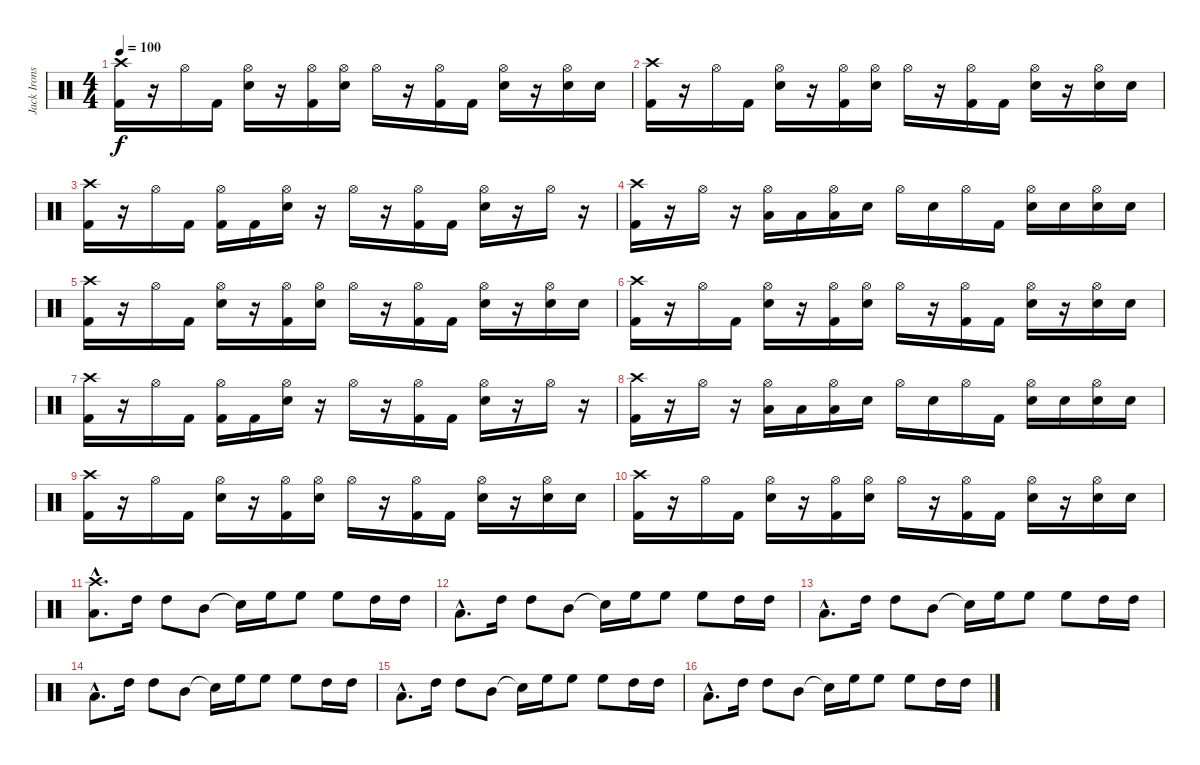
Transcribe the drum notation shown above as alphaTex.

\track ("Jack Irons" "Jack Irons") {instrument percussion}
\staff {score}
\articulation defaults
\ts (4 4)
\tempo 100
\clef neutral
\ks c
("Crash high (hit)" "Kick (hit) 2").16{dy f} r.16 "Hi-Hat (open)".16 "Kick (hit) 2".16 ("Hi-Hat (open)" "Snare (hit) 2").16 r.16 ("Hi-Hat (open)" "Kick (hit) 2").16 ("Hi-Hat (open)" "Snare (hit) 2").16 "Hi-Hat (open)".16 r.16 ("Hi-Hat (open)" "Kick (hit) 2").16 "Kick (hit) 2".16 ("Hi-Hat (open)" "Snare (hit) 2").16 r.16 ("Hi-Hat (open)" "Snare (hit) 2").16 "Snare (hit) 2".16 |
("Crash high (hit)" "Kick (hit) 2").16 r.16 "Hi-Hat (open)".16 "Kick (hit) 2".16 ("Hi-Hat (open)" "Snare (hit) 2").16 r.16 ("Hi-Hat (open)" "Kick (hit) 2").16 ("Hi-Hat (open)" "Snare (hit) 2").16 "Hi-Hat (open)".16 r.16 ("Hi-Hat (open)" "Kick (hit) 2").16 "Kick (hit) 2".16 ("Hi-Hat (open)" "Snare (hit) 2").16 r.16 ("Hi-Hat (open)" "Snare (hit) 2").16 "Snare (hit) 2".16 |
("Crash high (hit)" "Kick (hit) 2").16 r.16 "Hi-Hat (open)".16 "Kick (hit) 2".16 ("Hi-Hat (open)" "Kick (hit) 2").16 "Kick (hit) 2".16 ("Hi-Hat (open)" "Snare (hit) 2").16 r.16 "Hi-Hat (open)".16 r.16 ("Hi-Hat (open)" "Kick (hit) 2").16 "Kick (hit) 2".16 ("Hi-Hat (open)" "Snare (hit) 2").16 r.16 "Hi-Hat (open)".16 r.16 |
("Crash high (hit)" "Kick (hit) 2").16 r.16 "Hi-Hat (open)".16 r.16 ("Hi-Hat (open)" "Low Floor Tom (hit)").16 "Low Floor Tom (hit)".16 ("Hi-Hat (open)" "Low Floor Tom (hit)").16 "Snare (hit) 2".16 "Hi-Hat (open)".16 "Snare (hit) 2".16 "Hi-Hat (open)".16 "Kick (hit) 2".16 ("Hi-Hat (open)" "Snare (hit) 2").16 "Snare (hit) 2".16 ("Hi-Hat (open)" "Snare (hit) 2").16 "Snare (hit) 2".16 |
("Crash high (hit)" "Kick (hit) 2").16 r.16 "Hi-Hat (open)".16 "Kick (hit) 2".16 ("Hi-Hat (open)" "Snare (hit) 2").16 r.16 ("Hi-Hat (open)" "Kick (hit) 2").16 ("Hi-Hat (open)" "Snare (hit) 2").16 "Hi-Hat (open)".16 r.16 ("Hi-Hat (open)" "Kick (hit) 2").16 "Kick (hit) 2".16 ("Hi-Hat (open)" "Snare (hit) 2").16 r.16 ("Hi-Hat (open)" "Snare (hit) 2").16 "Snare (hit) 2".16 |
("Crash high (hit)" "Kick (hit) 2").16 r.16 "Hi-Hat (open)".16 "Kick (hit) 2".16 ("Hi-Hat (open)" "Snare (hit) 2").16 r.16 ("Hi-Hat (open)" "Kick (hit) 2").16 ("Hi-Hat (open)" "Snare (hit) 2").16 "Hi-Hat (open)".16 r.16 ("Hi-Hat (open)" "Kick (hit) 2").16 "Kick (hit) 2".16 ("Hi-Hat (open)" "Snare (hit) 2").16 r.16 ("Hi-Hat (open)" "Snare (hit) 2").16 "Snare (hit) 2".16 |
("Crash high (hit)" "Kick (hit) 2").16 r.16 "Hi-Hat (open)".16 "Kick (hit) 2".16 ("Hi-Hat (open)" "Kick (hit) 2").16 "Kick (hit) 2".16 ("Hi-Hat (open)" "Snare (hit) 2").16 r.16 "Hi-Hat (open)".16 r.16 ("Hi-Hat (open)" "Kick (hit) 2").16 "Kick (hit) 2".16 ("Hi-Hat (open)" "Snare (hit) 2").16 r.16 "Hi-Hat (open)".16 r.16 |
("Crash high (hit)" "Kick (hit) 2").16 r.16 "Hi-Hat (open)".16 r.16 ("Hi-Hat (open)" "Low Floor Tom (hit)").16 "Low Floor Tom (hit)".16 ("Hi-Hat (open)" "Low Floor Tom (hit)").16 "Snare (hit) 2".16 "Hi-Hat (open)".16 "Snare (hit) 2".16 "Hi-Hat (open)".16 "Kick (hit) 2".16 ("Hi-Hat (open)" "Snare (hit) 2").16 "Snare (hit) 2".16 ("Hi-Hat (open)" "Snare (hit) 2").16 "Snare (hit) 2".16 |
("Crash high (hit)" "Kick (hit) 2").16 r.16 "Hi-Hat (open)".16 "Kick (hit) 2".16 ("Hi-Hat (open)" "Snare (hit) 2").16 r.16 ("Hi-Hat (open)" "Kick (hit) 2").16 ("Hi-Hat (open)" "Snare (hit) 2").16 "Hi-Hat (open)".16 r.16 ("Hi-Hat (open)" "Kick (hit) 2").16 "Kick (hit) 2".16 ("Hi-Hat (open)" "Snare (hit) 2").16 r.16 ("Hi-Hat (open)" "Snare (hit) 2").16 "Snare (hit) 2".16 |
("Crash high (hit)" "Kick (hit) 2").16 r.16 "Hi-Hat (open)".16 "Kick (hit) 2".16 ("Hi-Hat (open)" "Snare (hit) 2").16 r.16 ("Hi-Hat (open)" "Kick (hit) 2").16 ("Hi-Hat (open)" "Snare (hit) 2").16 "Hi-Hat (open)".16 r.16 ("Hi-Hat (open)" "Kick (hit) 2").16 "Kick (hit) 2".16 ("Hi-Hat (open)" "Snare (hit) 2").16 r.16 ("Hi-Hat (open)" "Snare (hit) 2").16 "Snare (hit) 2".16 |
("Crash high (hit)"{hac} "Low Floor Tom (hit)"{hac}).8{d} "High Tom (hit)".16 "High Tom (hit)".8 "Mid Tom (hit)".8 "Snare (hit)"{t}.16 "High Floor Tom (hit)".16 "High Floor Tom (hit)".8 "High Floor Tom (hit)".8 "High Tom (hit)".16 "High Tom (hit)".16 |
"Low Floor Tom (hit)"{hac}.8{d} "High Tom (hit)".16 "High Tom (hit)".8 "Mid Tom (hit)".8 "Snare (hit)"{t}.16 "High Floor Tom (hit)".16 "High Floor Tom (hit)".8 "High Floor Tom (hit)".8 "High Tom (hit)".16 "High Tom (hit)".16 |
"Low Floor Tom (hit)"{hac}.8{d} "High Tom (hit)".16 "High Tom (hit)".8 "Mid Tom (hit)".8 "Snare (hit)"{t}.16 "High Floor Tom (hit)".16 "High Floor Tom (hit)".8 "High Floor Tom (hit)".8 "High Tom (hit)".16 "High Tom (hit)".16 |
"Low Floor Tom (hit)"{hac}.8{d} "High Tom (hit)".16 "High Tom (hit)".8 "Mid Tom (hit)".8 "Snare (hit)"{t}.16 "High Floor Tom (hit)".16 "High Floor Tom (hit)".8 "High Floor Tom (hit)".8 "High Tom (hit)".16 "High Tom (hit)".16 |
"Low Floor Tom (hit)"{hac}.8{d} "High Tom (hit)".16 "High Tom (hit)".8 "Mid Tom (hit)".8 "Snare (hit)"{t}.16 "High Floor Tom (hit)".16 "High Floor Tom (hit)".8 "High Floor Tom (hit)".8 "High Tom (hit)".16 "High Tom (hit)".16 |
"Low Floor Tom (hit)"{hac}.8{d} "High Tom (hit)".16 "High Tom (hit)".8 "Mid Tom (hit)".8 "Snare (hit)"{t}.16 "High Floor Tom (hit)".16 "High Floor Tom (hit)".8 "High Floor Tom (hit)".8 "High Tom (hit)".16 "High Tom (hit)".16
